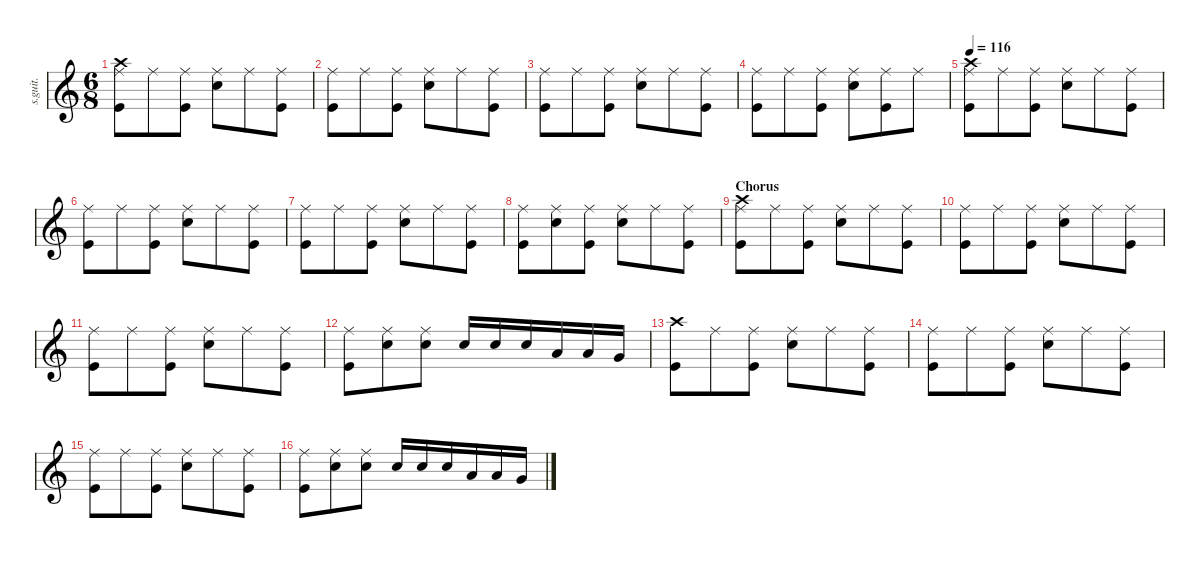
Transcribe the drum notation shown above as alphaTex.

\defaultSystemsLayout 4
\hideDynamics
\bracketExtendMode nobrackets
\track ("John Dolmayan - Drums" "s.guit.") {instrument percussion}
\staff {score}
\articulation defaults
\ts (6 8)
\tempo (115 hide)
\clef g2
\ks c
("Crash high (hit)" "Ride (middle)" "Kick (hit)").8{lyrics (0 "") lyrics (1 "") lyrics (2 "") lyrics (3 "") lyrics (4 "") dy f} "Ride (middle)".8{lyrics (0 "") lyrics (1 "") lyrics (2 "") lyrics (3 "") lyrics (4 "")} ("Ride (middle)" "Kick (hit)").8{lyrics (0 "") lyrics (1 "") lyrics (2 "") lyrics (3 "") lyrics (4 "")} ("Ride (middle)" "Snare (hit) 2").8{lyrics (0 "") lyrics (1 "") lyrics (2 "") lyrics (3 "") lyrics (4 "")} "Ride (middle)".8{lyrics (0 "") lyrics (1 "") lyrics (2 "") lyrics (3 "") lyrics (4 "")} ("Ride (middle)" "Kick (hit)").8{lyrics (0 "") lyrics (1 "") lyrics (2 "") lyrics (3 "") lyrics (4 "")} |
("Ride (middle)" "Kick (hit)").8{lyrics (0 "") lyrics (1 "") lyrics (2 "") lyrics (3 "") lyrics (4 "")} "Ride (middle)".8{lyrics (0 "") lyrics (1 "") lyrics (2 "") lyrics (3 "") lyrics (4 "")} ("Ride (middle)" "Kick (hit)").8{lyrics (0 "") lyrics (1 "") lyrics (2 "") lyrics (3 "") lyrics (4 "")} ("Ride (middle)" "Snare (hit) 2").8{lyrics (0 "") lyrics (1 "") lyrics (2 "") lyrics (3 "") lyrics (4 "")} "Ride (middle)".8{lyrics (0 "") lyrics (1 "") lyrics (2 "") lyrics (3 "") lyrics (4 "")} ("Ride (middle)" "Kick (hit)").8{lyrics (0 "") lyrics (1 "") lyrics (2 "") lyrics (3 "") lyrics (4 "")} |
("Ride (middle)" "Kick (hit)").8{lyrics (0 "") lyrics (1 "") lyrics (2 "") lyrics (3 "") lyrics (4 "")} "Ride (middle)".8{lyrics (0 "") lyrics (1 "") lyrics (2 "") lyrics (3 "") lyrics (4 "")} ("Ride (middle)" "Kick (hit)").8{lyrics (0 "") lyrics (1 "") lyrics (2 "") lyrics (3 "") lyrics (4 "")} ("Ride (middle)" "Snare (hit) 2").8{lyrics (0 "") lyrics (1 "") lyrics (2 "") lyrics (3 "") lyrics (4 "")} "Ride (middle)".8{lyrics (0 "") lyrics (1 "") lyrics (2 "") lyrics (3 "") lyrics (4 "")} ("Ride (middle)" "Kick (hit)").8{lyrics (0 "") lyrics (1 "") lyrics (2 "") lyrics (3 "") lyrics (4 "")} |
("Ride (middle)" "Kick (hit)").8{lyrics (0 "") lyrics (1 "") lyrics (2 "") lyrics (3 "") lyrics (4 "")} "Ride (middle)".8{lyrics (0 "") lyrics (1 "") lyrics (2 "") lyrics (3 "") lyrics (4 "")} ("Ride (middle)" "Kick (hit)").8{lyrics (0 "") lyrics (1 "") lyrics (2 "") lyrics (3 "") lyrics (4 "")} ("Ride (middle)" "Snare (hit) 2").8{lyrics (0 "") lyrics (1 "") lyrics (2 "") lyrics (3 "") lyrics (4 "")} ("Ride (middle)" "Kick (hit)").8{lyrics (0 "") lyrics (1 "") lyrics (2 "") lyrics (3 "") lyrics (4 "")} "Ride (middle)".8{lyrics (0 "") lyrics (1 "") lyrics (2 "") lyrics (3 "") lyrics (4 "")} |
\tempo 116
("Crash high (hit)" "Ride (middle)" "Kick (hit)").8{lyrics (0 "") lyrics (1 "") lyrics (2 "") lyrics (3 "") lyrics (4 "")} "Ride (middle)".8{lyrics (0 "") lyrics (1 "") lyrics (2 "") lyrics (3 "") lyrics (4 "")} ("Ride (middle)" "Kick (hit)").8{lyrics (0 "") lyrics (1 "") lyrics (2 "") lyrics (3 "") lyrics (4 "")} ("Ride (middle)" "Snare (hit) 2").8{lyrics (0 "") lyrics (1 "") lyrics (2 "") lyrics (3 "") lyrics (4 "")} "Ride (middle)".8{lyrics (0 "") lyrics (1 "") lyrics (2 "") lyrics (3 "") lyrics (4 "")} ("Ride (middle)" "Kick (hit)").8{lyrics (0 "") lyrics (1 "") lyrics (2 "") lyrics (3 "") lyrics (4 "")} |
("Ride (middle)" "Kick (hit)").8{lyrics (0 "") lyrics (1 "") lyrics (2 "") lyrics (3 "") lyrics (4 "")} "Ride (middle)".8{lyrics (0 "") lyrics (1 "") lyrics (2 "") lyrics (3 "") lyrics (4 "")} ("Ride (middle)" "Kick (hit)").8{lyrics (0 "") lyrics (1 "") lyrics (2 "") lyrics (3 "") lyrics (4 "")} ("Ride (middle)" "Snare (hit) 2").8{lyrics (0 "") lyrics (1 "") lyrics (2 "") lyrics (3 "") lyrics (4 "")} "Ride (middle)".8{lyrics (0 "") lyrics (1 "") lyrics (2 "") lyrics (3 "") lyrics (4 "")} ("Ride (middle)" "Kick (hit)").8{lyrics (0 "") lyrics (1 "") lyrics (2 "") lyrics (3 "") lyrics (4 "")} |
("Ride (middle)" "Kick (hit)").8{lyrics (0 "") lyrics (1 "") lyrics (2 "") lyrics (3 "") lyrics (4 "")} "Ride (middle)".8{lyrics (0 "") lyrics (1 "") lyrics (2 "") lyrics (3 "") lyrics (4 "")} ("Ride (middle)" "Kick (hit)").8{lyrics (0 "") lyrics (1 "") lyrics (2 "") lyrics (3 "") lyrics (4 "")} ("Ride (middle)" "Snare (hit) 2").8{lyrics (0 "") lyrics (1 "") lyrics (2 "") lyrics (3 "") lyrics (4 "")} "Ride (middle)".8{lyrics (0 "") lyrics (1 "") lyrics (2 "") lyrics (3 "") lyrics (4 "")} ("Ride (middle)" "Kick (hit)").8{lyrics (0 "") lyrics (1 "") lyrics (2 "") lyrics (3 "") lyrics (4 "")} |
("Ride (middle)" "Kick (hit)").8{lyrics (0 "") lyrics (1 "") lyrics (2 "") lyrics (3 "") lyrics (4 "")} ("Ride (middle)" "Snare (hit) 2").8{lyrics (0 "") lyrics (1 "") lyrics (2 "") lyrics (3 "") lyrics (4 "")} ("Ride (middle)" "Kick (hit)").8{lyrics (0 "") lyrics (1 "") lyrics (2 "") lyrics (3 "") lyrics (4 "")} ("Ride (middle)" "Snare (hit) 2").8{lyrics (0 "") lyrics (1 "") lyrics (2 "") lyrics (3 "") lyrics (4 "")} "Ride (middle)".8{lyrics (0 "") lyrics (1 "") lyrics (2 "") lyrics (3 "") lyrics (4 "")} ("Ride (middle)" "Kick (hit)").8{lyrics (0 "") lyrics (1 "") lyrics (2 "") lyrics (3 "") lyrics (4 "")} |
\section ("" "Chorus")
("Crash high (hit)" "Ride (middle)" "Kick (hit)").8{lyrics (0 "") lyrics (1 "") lyrics (2 "") lyrics (3 "") lyrics (4 "")} "Ride (middle)".8{lyrics (0 "") lyrics (1 "") lyrics (2 "") lyrics (3 "") lyrics (4 "")} ("Ride (middle)" "Kick (hit)").8{lyrics (0 "") lyrics (1 "") lyrics (2 "") lyrics (3 "") lyrics (4 "")} ("Ride (middle)" "Snare (hit) 2").8{lyrics (0 "") lyrics (1 "") lyrics (2 "") lyrics (3 "") lyrics (4 "")} "Ride (middle)".8{lyrics (0 "") lyrics (1 "") lyrics (2 "") lyrics (3 "") lyrics (4 "")} ("Ride (middle)" "Kick (hit)").8{lyrics (0 "") lyrics (1 "") lyrics (2 "") lyrics (3 "") lyrics (4 "")} |
("Ride (middle)" "Kick (hit)").8{lyrics (0 "") lyrics (1 "") lyrics (2 "") lyrics (3 "") lyrics (4 "")} "Ride (middle)".8{lyrics (0 "") lyrics (1 "") lyrics (2 "") lyrics (3 "") lyrics (4 "")} ("Ride (middle)" "Kick (hit)").8{lyrics (0 "") lyrics (1 "") lyrics (2 "") lyrics (3 "") lyrics (4 "")} ("Ride (middle)" "Snare (hit) 2").8{lyrics (0 "") lyrics (1 "") lyrics (2 "") lyrics (3 "") lyrics (4 "")} "Ride (middle)".8{lyrics (0 "") lyrics (1 "") lyrics (2 "") lyrics (3 "") lyrics (4 "")} ("Ride (middle)" "Kick (hit)").8{lyrics (0 "") lyrics (1 "") lyrics (2 "") lyrics (3 "") lyrics (4 "")} |
("Ride (middle)" "Kick (hit)").8{lyrics (0 "") lyrics (1 "") lyrics (2 "") lyrics (3 "") lyrics (4 "")} "Ride (middle)".8{lyrics (0 "") lyrics (1 "") lyrics (2 "") lyrics (3 "") lyrics (4 "")} ("Ride (middle)" "Kick (hit)").8{lyrics (0 "") lyrics (1 "") lyrics (2 "") lyrics (3 "") lyrics (4 "")} ("Ride (middle)" "Snare (hit) 2").8{lyrics (0 "") lyrics (1 "") lyrics (2 "") lyrics (3 "") lyrics (4 "")} "Ride (middle)".8{lyrics (0 "") lyrics (1 "") lyrics (2 "") lyrics (3 "") lyrics (4 "")} ("Ride (middle)" "Kick (hit)").8{lyrics (0 "") lyrics (1 "") lyrics (2 "") lyrics (3 "") lyrics (4 "")} |
("Ride (middle)" "Kick (hit)").8{lyrics (0 "") lyrics (1 "") lyrics (2 "") lyrics (3 "") lyrics (4 "")} ("Ride (middle)" "Snare (hit) 2").8{lyrics (0 "") lyrics (1 "") lyrics (2 "") lyrics (3 "") lyrics (4 "")} ("Ride (middle)" "Snare (hit) 2").8{lyrics (0 "") lyrics (1 "") lyrics (2 "") lyrics (3 "") lyrics (4 "")} "Snare (hit) 2".16{lyrics (0 "") lyrics (1 "") lyrics (2 "") lyrics (3 "") lyrics (4 "")} "Snare (hit) 2".16{lyrics (0 "") lyrics (1 "") lyrics (2 "") lyrics (3 "") lyrics (4 "")} "Snare (hit) 2".16{lyrics (0 "") lyrics (1 "") lyrics (2 "") lyrics (3 "") lyrics (4 "")} "Low Tom (hit)".16{lyrics (0 "") lyrics (1 "") lyrics (2 "") lyrics (3 "") lyrics (4 "")} "Low Tom (hit)".16{lyrics (0 "") lyrics (1 "") lyrics (2 "") lyrics (3 "") lyrics (4 "")} "Very Low Tom (hit)".16{lyrics (0 "") lyrics (1 "") lyrics (2 "") lyrics (3 "") lyrics (4 "")} |
("Crash high (hit)" "Kick (hit)").8{lyrics (0 "") lyrics (1 "") lyrics (2 "") lyrics (3 "") lyrics (4 "")} "Ride (middle)".8{lyrics (0 "") lyrics (1 "") lyrics (2 "") lyrics (3 "") lyrics (4 "")} ("Ride (middle)" "Kick (hit)").8{lyrics (0 "") lyrics (1 "") lyrics (2 "") lyrics (3 "") lyrics (4 "")} ("Ride (middle)" "Snare (hit) 2").8{lyrics (0 "") lyrics (1 "") lyrics (2 "") lyrics (3 "") lyrics (4 "")} "Ride (middle)".8{lyrics (0 "") lyrics (1 "") lyrics (2 "") lyrics (3 "") lyrics (4 "")} ("Ride (middle)" "Kick (hit)").8{lyrics (0 "") lyrics (1 "") lyrics (2 "") lyrics (3 "") lyrics (4 "")} |
("Ride (middle)" "Kick (hit)").8{lyrics (0 "") lyrics (1 "") lyrics (2 "") lyrics (3 "") lyrics (4 "")} "Ride (middle)".8{lyrics (0 "") lyrics (1 "") lyrics (2 "") lyrics (3 "") lyrics (4 "")} ("Ride (middle)" "Kick (hit)").8{lyrics (0 "") lyrics (1 "") lyrics (2 "") lyrics (3 "") lyrics (4 "")} ("Ride (middle)" "Snare (hit) 2").8{lyrics (0 "") lyrics (1 "") lyrics (2 "") lyrics (3 "") lyrics (4 "")} "Ride (middle)".8{lyrics (0 "") lyrics (1 "") lyrics (2 "") lyrics (3 "") lyrics (4 "")} ("Ride (middle)" "Kick (hit)").8{lyrics (0 "") lyrics (1 "") lyrics (2 "") lyrics (3 "") lyrics (4 "")} |
("Ride (middle)" "Kick (hit)").8{lyrics (0 "") lyrics (1 "") lyrics (2 "") lyrics (3 "") lyrics (4 "")} "Ride (middle)".8{lyrics (0 "") lyrics (1 "") lyrics (2 "") lyrics (3 "") lyrics (4 "")} ("Ride (middle)" "Kick (hit)").8{lyrics (0 "") lyrics (1 "") lyrics (2 "") lyrics (3 "") lyrics (4 "")} ("Ride (middle)" "Snare (hit) 2").8{lyrics (0 "") lyrics (1 "") lyrics (2 "") lyrics (3 "") lyrics (4 "")} "Ride (middle)".8{lyrics (0 "") lyrics (1 "") lyrics (2 "") lyrics (3 "") lyrics (4 "")} ("Ride (middle)" "Kick (hit)").8{lyrics (0 "") lyrics (1 "") lyrics (2 "") lyrics (3 "") lyrics (4 "")} |
("Ride (middle)" "Kick (hit)").8{lyrics (0 "") lyrics (1 "") lyrics (2 "") lyrics (3 "") lyrics (4 "")} ("Ride (middle)" "Snare (hit) 2").8{lyrics (0 "") lyrics (1 "") lyrics (2 "") lyrics (3 "") lyrics (4 "")} ("Ride (middle)" "Snare (hit) 2").8{lyrics (0 "") lyrics (1 "") lyrics (2 "") lyrics (3 "") lyrics (4 "")} "Snare (hit) 2".16{lyrics (0 "") lyrics (1 "") lyrics (2 "") lyrics (3 "") lyrics (4 "")} "Snare (hit) 2".16{lyrics (0 "") lyrics (1 "") lyrics (2 "") lyrics (3 "") lyrics (4 "")} "Snare (hit) 2".16{lyrics (0 "") lyrics (1 "") lyrics (2 "") lyrics (3 "") lyrics (4 "")} "Low Tom (hit)".16{lyrics (0 "") lyrics (1 "") lyrics (2 "") lyrics (3 "") lyrics (4 "")} "Low Tom (hit)".16{lyrics (0 "") lyrics (1 "") lyrics (2 "") lyrics (3 "") lyrics (4 "")} "Very Low Tom (hit)".16{lyrics (0 "") lyrics (1 "") lyrics (2 "") lyrics (3 "") lyrics (4 "")}
